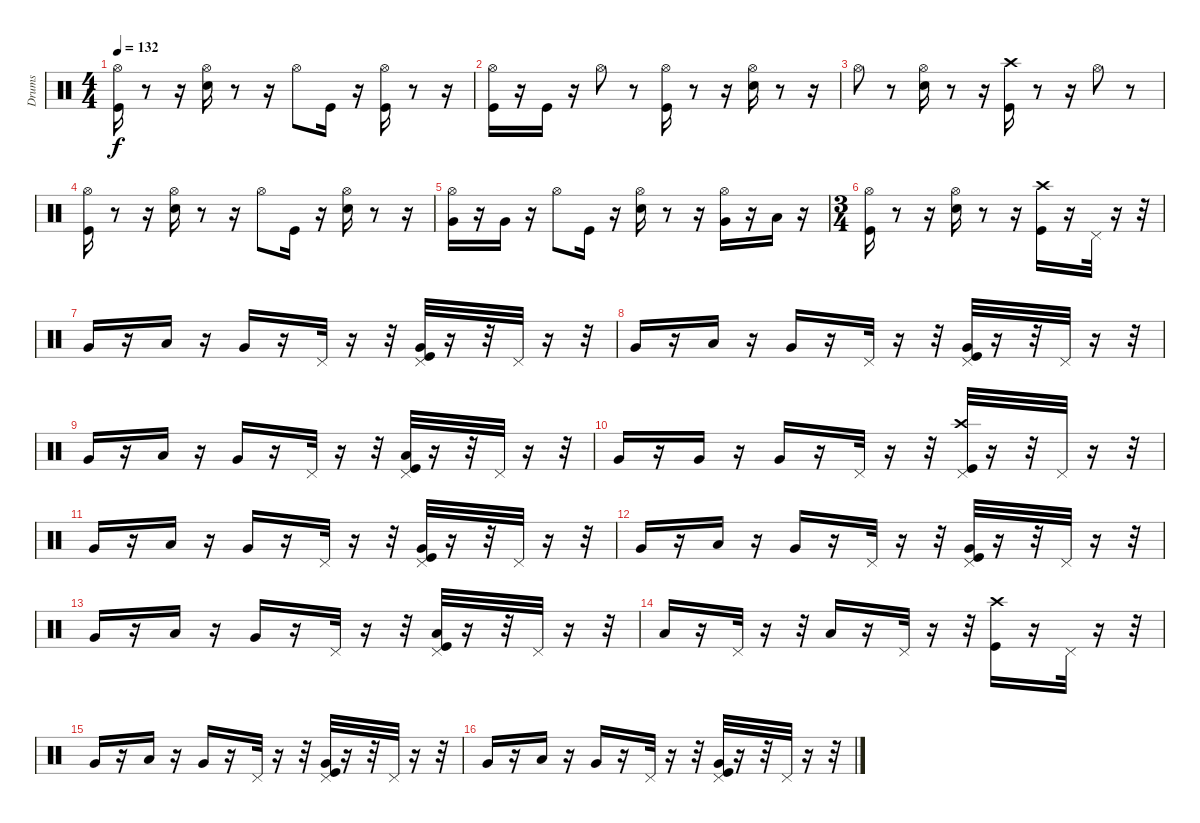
\track ("Drums" "Drums") {instrument percussion}
\staff {score}
\articulation defaults
\ts (4 4)
\tempo 132
\clef neutral
\ks c
("Hi-Hat (open)" "Kick (hit)").16{dy f} r.8 r.16 ("Snare (hit) 2" "Hi-Hat (open)").16 r.8 r.16 "Hi-Hat (open)".8 "Kick (hit)".16 r.16 ("Hi-Hat (open)" "Kick (hit)").16 r.8 r.16 |
("Kick (hit)" "Hi-Hat (open)").16 r.16 "Kick (hit)".16 r.16 "Hi-Hat (open)".8 r.8 ("Hi-Hat (open)" "Kick (hit)").16 r.8 r.16 ("Hi-Hat (open)" "Snare (hit) 2").16 r.8 r.16 |
"Hi-Hat (open)".8 r.8 ("Hi-Hat (open)" "Snare (hit) 2").16 r.8 r.16 ("Kick (hit)" "Crash high (hit)").16 r.8 r.16 "Hi-Hat (open)".8 r.8 |
("Kick (hit)" "Hi-Hat (open)").16 r.8 r.16 ("Hi-Hat (open)" "Snare (hit) 2").16 r.8 r.16 "Hi-Hat (open)".8 "Kick (hit)".16 r.16 ("Hi-Hat (open)" "Snare (hit) 2").16 r.8 r.16 |
("Hi-Hat (open)" "Very Low Tom (hit)").16 r.16 "Very Low Tom (hit)".16 r.16 "Hi-Hat (open)".8 "Kick (hit)".16 r.16 ("Hi-Hat (open)" "Snare (hit) 2").16 r.8 r.16 ("Hi-Hat (open)" "Very Low Tom (hit)").16 r.16 "Low Floor Tom (hit)".16 r.16 |
\ts (3 4)
("Hi-Hat (open)" "Kick (hit)").16 r.8 r.16 ("Hi-Hat (open)" "Snare (hit) 2").16 r.8 r.16 ("Crash high (hit)" "Kick (hit)").16 r.16 "Pedal Hi-Hat (hit)".32 r.16 r.32 |
"Very Low Tom (hit)".16 r.16 "Low Tom (hit)".16 r.16 "Very Low Tom (hit)".16 r.16 "Pedal Hi-Hat (hit)".32 r.16 r.32 ("Kick (hit)" "Pedal Hi-Hat (hit)" "Very Low Tom (hit)").32 r.16 r.32 "Pedal Hi-Hat (hit)".32 r.16 r.32 |
"Very Low Tom (hit)".16 r.16 "Low Tom (hit)".16 r.16 "Very Low Tom (hit)".16 r.16 "Pedal Hi-Hat (hit)".32 r.16 r.32 ("Kick (hit)" "Pedal Hi-Hat (hit)" "Very Low Tom (hit)").32 r.16 r.32 "Pedal Hi-Hat (hit)".32 r.16 r.32 |
"Very Low Tom (hit)".16 r.16 "Low Tom (hit)".16 r.16 "Very Low Tom (hit)".16 r.16 "Pedal Hi-Hat (hit)".32 r.16 r.32 ("Kick (hit)" "Low Tom (hit)" "Pedal Hi-Hat (hit)").32 r.16 r.32 "Pedal Hi-Hat (hit)".32 r.16 r.32 |
"Very Low Tom (hit)".16 r.16 "Very Low Tom (hit)".16 r.16 "Very Low Tom (hit)".16 r.16 "Pedal Hi-Hat (hit)".32 r.16 r.32 ("Kick (hit)" "Crash high (hit)" "Pedal Hi-Hat (hit)").32 r.16 r.32 "Pedal Hi-Hat (hit)".32 r.16 r.32 |
"Very Low Tom (hit)".16 r.16 "Low Tom (hit)".16 r.16 "Very Low Tom (hit)".16 r.16 "Pedal Hi-Hat (hit)".32 r.16 r.32 ("Kick (hit)" "Pedal Hi-Hat (hit)" "Very Low Tom (hit)").32 r.16 r.32 "Pedal Hi-Hat (hit)".32 r.16 r.32 |
"Very Low Tom (hit)".16 r.16 "Low Tom (hit)".16 r.16 "Very Low Tom (hit)".16 r.16 "Pedal Hi-Hat (hit)".32 r.16 r.32 ("Kick (hit)" "Pedal Hi-Hat (hit)" "Very Low Tom (hit)").32 r.16 r.32 "Pedal Hi-Hat (hit)".32 r.16 r.32 |
"Very Low Tom (hit)".16 r.16 "Low Tom (hit)".16 r.16 "Very Low Tom (hit)".16 r.16 "Pedal Hi-Hat (hit)".32 r.16 r.32 ("Kick (hit)" "Low Tom (hit)" "Pedal Hi-Hat (hit)").32 r.16 r.32 "Pedal Hi-Hat (hit)".32 r.16 r.32 |
"Low Floor Tom (hit)".16 r.16 "Pedal Hi-Hat (hit)".32 r.16 r.32 "Low Floor Tom (hit)".16 r.16 "Pedal Hi-Hat (hit)".32 r.16 r.32 ("Crash high (hit)" "Kick (hit)").16 r.16 "Pedal Hi-Hat (hit)".32 r.16 r.32 |
"Very Low Tom (hit)".16 r.16 "Low Tom (hit)".16 r.16 "Very Low Tom (hit)".16 r.16 "Pedal Hi-Hat (hit)".32 r.16 r.32 ("Kick (hit)" "Pedal Hi-Hat (hit)" "Very Low Tom (hit)").32 r.16 r.32 "Pedal Hi-Hat (hit)".32 r.16 r.32 |
"Very Low Tom (hit)".16 r.16 "Low Tom (hit)".16 r.16 "Very Low Tom (hit)".16 r.16 "Pedal Hi-Hat (hit)".32 r.16 r.32 ("Kick (hit)" "Pedal Hi-Hat (hit)" "Very Low Tom (hit)").32 r.16 r.32 "Pedal Hi-Hat (hit)".32 r.16 r.32
